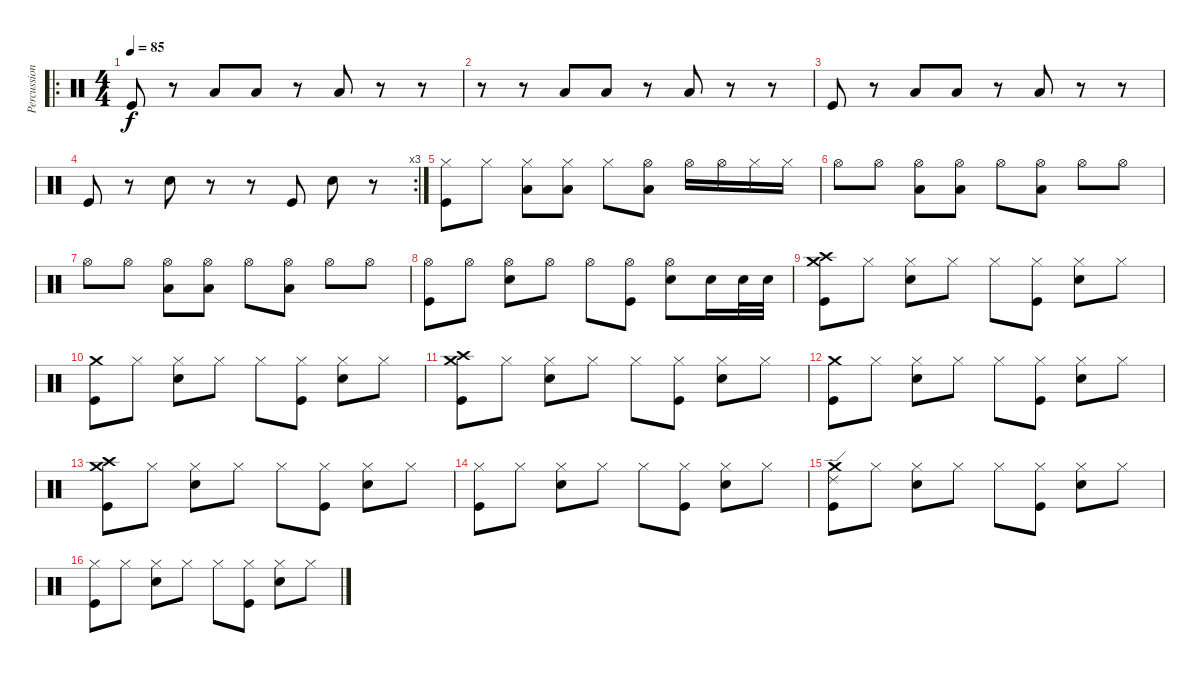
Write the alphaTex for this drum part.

\track ("Percussion" "Percussion") {instrument percussion}
\staff {score}
\articulation defaults
\ro
\ts (4 4)
\tempo 85
\clef neutral
\ks c "Kick (hit)".8{dy f}
r.8 "Low Tom (hit)".8 "Low Tom (hit)".8 r.8 "Low Tom (hit)".8 r.8 r.8 |
r.8 r.8 "Low Tom (hit)".8 "Low Tom (hit)".8 r.8 "Low Tom (hit)".8 r.8 r.8 |
"Kick (hit)".8 r.8 "Low Tom (hit)".8 "Low Tom (hit)".8 r.8 "Low Tom (hit)".8 r.8 r.8 |
\rc 3 "Kick (hit)".8
r.8 "Snare (hit) 2".8 r.8 r.8 "Kick (hit)".8 "Snare (hit) 2".8 r.8 |
("Hi-Hat (closed)" "Kick (hit)").8 "Hi-Hat (closed)".8 ("Hi-Hat (closed)" "Low Tom (hit)").8 ("Hi-Hat (closed)" "Low Tom (hit)").8 "Hi-Hat (closed)".8 ("Hi-Hat (open)" "Low Tom (hit)").8 "Hi-Hat (open)".16 "Hi-Hat (open)".16 "Hi-Hat (closed)".16 "Hi-Hat (closed)".16 |
"Hi-Hat (open)".8 "Hi-Hat (open)".8 ("Hi-Hat (open)" "Low Tom (hit)").8 ("Hi-Hat (open)" "Low Tom (hit)").8 "Hi-Hat (open)".8 ("Hi-Hat (open)" "Low Tom (hit)").8 "Hi-Hat (open)".8 "Hi-Hat (open)".8 |
"Hi-Hat (open)".8 "Hi-Hat (open)".8 ("Hi-Hat (open)" "Low Tom (hit)").8 ("Hi-Hat (open)" "Low Tom (hit)").8 "Hi-Hat (open)".8 ("Hi-Hat (open)" "Low Tom (hit)").8 "Hi-Hat (open)".8 "Hi-Hat (open)".8 |
("Hi-Hat (open)" "Kick (hit)").8 "Hi-Hat (open)".8 ("Hi-Hat (open)" "Snare (hit) 2").8 "Hi-Hat (open)".8 "Hi-Hat (open)".8 ("Hi-Hat (open)" "Kick (hit)").8 ("Hi-Hat (open)" "Snare (hit) 2").8 "Snare (hit) 2".16 "Snare (hit) 2".32 "Snare (hit) 2".32 |
("Crash high (hit)" "Crash medium (hit)" "Kick (hit)").8 "Hi-Hat (closed)".8 ("Hi-Hat (closed)" "Snare (hit) 2").8 "Hi-Hat (closed)".8 "Hi-Hat (closed)".8 ("Hi-Hat (closed)" "Kick (hit)").8 ("Hi-Hat (closed)" "Snare (hit) 2").8 "Hi-Hat (closed)".8 |
("Crash medium (hit)" "Kick (hit)").8 "Hi-Hat (closed)".8 ("Hi-Hat (closed)" "Snare (hit) 2").8 "Hi-Hat (closed)".8 "Hi-Hat (closed)".8 ("Hi-Hat (closed)" "Kick (hit)").8 ("Hi-Hat (closed)" "Snare (hit) 2").8 "Hi-Hat (closed)".8 |
("Crash high (hit)" "Crash medium (hit)" "Kick (hit)").8 "Hi-Hat (closed)".8 ("Hi-Hat (closed)" "Snare (hit) 2").8 "Hi-Hat (closed)".8 "Hi-Hat (closed)".8 ("Hi-Hat (closed)" "Kick (hit)").8 ("Hi-Hat (closed)" "Snare (hit) 2").8 "Hi-Hat (closed)".8 |
("Crash medium (hit)" "Kick (hit)").8 "Hi-Hat (closed)".8 ("Hi-Hat (closed)" "Snare (hit) 2").8 "Hi-Hat (closed)".8 "Hi-Hat (closed)".8 ("Hi-Hat (closed)" "Kick (hit)").8 ("Hi-Hat (closed)" "Snare (hit) 2").8 "Hi-Hat (closed)".8 |
("Crash high (hit)" "Crash medium (hit)" "Kick (hit)").8 "Hi-Hat (closed)".8 ("Hi-Hat (closed)" "Snare (hit) 2").8 "Hi-Hat (closed)".8 "Hi-Hat (closed)".8 ("Hi-Hat (closed)" "Kick (hit)").8 ("Hi-Hat (closed)" "Snare (hit) 2").8 "Hi-Hat (closed)".8 |
("Hi-Hat (closed)" "Kick (hit)").8 "Hi-Hat (closed)".8 ("Hi-Hat (closed)" "Snare (hit) 2").8 "Hi-Hat (closed)".8 "Hi-Hat (closed)".8 ("Hi-Hat (closed)" "Kick (hit)").8 ("Hi-Hat (closed)" "Snare (hit) 2").8 "Hi-Hat (closed)".8 |
("Ride (edge) 2" "Crash medium (hit)" "Kick (hit)").8 "Hi-Hat (closed)".8 ("Hi-Hat (closed)" "Snare (hit) 2").8 "Hi-Hat (closed)".8 "Hi-Hat (closed)".8 ("Hi-Hat (closed)" "Kick (hit)").8 ("Hi-Hat (closed)" "Snare (hit) 2").8 "Hi-Hat (closed)".8 |
("Hi-Hat (closed)" "Kick (hit)").8 "Hi-Hat (closed)".8 ("Hi-Hat (closed)" "Snare (hit) 2").8 "Hi-Hat (closed)".8 "Hi-Hat (closed)".8 ("Hi-Hat (closed)" "Kick (hit)").8 ("Hi-Hat (closed)" "Snare (hit) 2").8 "Hi-Hat (closed)".8
